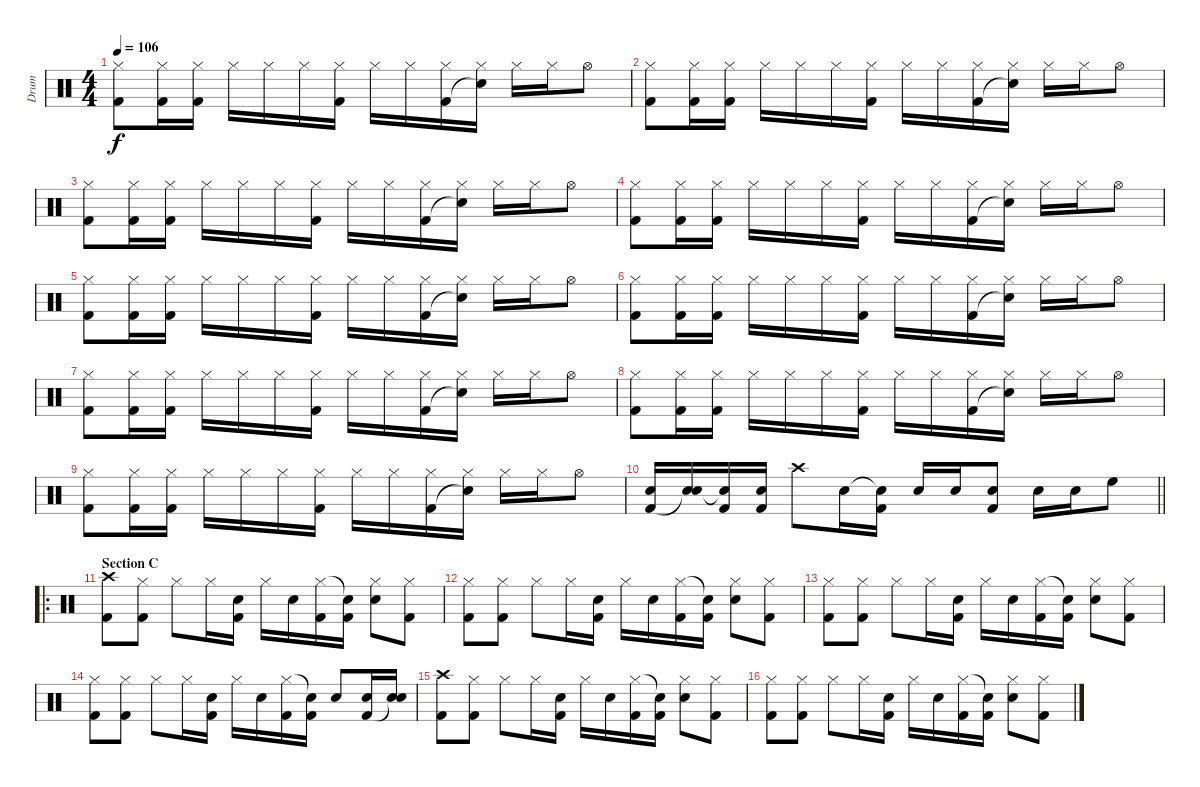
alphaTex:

\track ("Drum" "Drum") {instrument percussion}
\staff {score}
\articulation defaults
\ts (4 4)
\tempo 106
\clef neutral
\ks c
("Hi-Hat (closed)" "Kick (hit) 2").8{dy f} ("Hi-Hat (closed)" "Kick (hit) 2").16 ("Hi-Hat (closed)" "Kick (hit) 2").16 "Hi-Hat (closed)".16 "Hi-Hat (closed)".16 "Hi-Hat (closed)".16 ("Hi-Hat (closed)" "Kick (hit) 2").16 "Hi-Hat (closed)".16 "Hi-Hat (closed)".16 ("Hi-Hat (closed)" "Kick (hit) 2").16 ("Hi-Hat (closed)" "Snare (hit)"{t}).16 "Hi-Hat (closed)".16 "Hi-Hat (closed)".16 "Hi-Hat (open)".8 |
("Hi-Hat (closed)" "Kick (hit) 2").8 ("Hi-Hat (closed)" "Kick (hit) 2").16 ("Hi-Hat (closed)" "Kick (hit) 2").16 "Hi-Hat (closed)".16 "Hi-Hat (closed)".16 "Hi-Hat (closed)".16 ("Hi-Hat (closed)" "Kick (hit) 2").16 "Hi-Hat (closed)".16 "Hi-Hat (closed)".16 ("Hi-Hat (closed)" "Kick (hit) 2").16 ("Hi-Hat (closed)" "Snare (hit)"{t}).16 "Hi-Hat (closed)".16 "Hi-Hat (closed)".16 "Hi-Hat (open)".8 |
("Hi-Hat (closed)" "Kick (hit) 2").8 ("Hi-Hat (closed)" "Kick (hit) 2").16 ("Hi-Hat (closed)" "Kick (hit) 2").16 "Hi-Hat (closed)".16 "Hi-Hat (closed)".16 "Hi-Hat (closed)".16 ("Hi-Hat (closed)" "Kick (hit) 2").16 "Hi-Hat (closed)".16 "Hi-Hat (closed)".16 ("Hi-Hat (closed)" "Kick (hit) 2").16 ("Hi-Hat (closed)" "Snare (hit)"{t}).16 "Hi-Hat (closed)".16 "Hi-Hat (closed)".16 "Hi-Hat (open)".8 |
("Hi-Hat (closed)" "Kick (hit) 2").8 ("Hi-Hat (closed)" "Kick (hit) 2").16 ("Hi-Hat (closed)" "Kick (hit) 2").16 "Hi-Hat (closed)".16 "Hi-Hat (closed)".16 "Hi-Hat (closed)".16 ("Hi-Hat (closed)" "Kick (hit) 2").16 "Hi-Hat (closed)".16 "Hi-Hat (closed)".16 ("Hi-Hat (closed)" "Kick (hit) 2").16 ("Hi-Hat (closed)" "Snare (hit)"{t}).16 "Hi-Hat (closed)".16 "Hi-Hat (closed)".16 "Hi-Hat (open)".8 |
("Hi-Hat (closed)" "Kick (hit) 2").8 ("Hi-Hat (closed)" "Kick (hit) 2").16 ("Hi-Hat (closed)" "Kick (hit) 2").16 "Hi-Hat (closed)".16 "Hi-Hat (closed)".16 "Hi-Hat (closed)".16 ("Hi-Hat (closed)" "Kick (hit) 2").16 "Hi-Hat (closed)".16 "Hi-Hat (closed)".16 ("Hi-Hat (closed)" "Kick (hit) 2").16 ("Hi-Hat (closed)" "Snare (hit)"{t}).16 "Hi-Hat (closed)".16 "Hi-Hat (closed)".16 "Hi-Hat (open)".8 |
("Hi-Hat (closed)" "Kick (hit) 2").8 ("Hi-Hat (closed)" "Kick (hit) 2").16 ("Hi-Hat (closed)" "Kick (hit) 2").16 "Hi-Hat (closed)".16 "Hi-Hat (closed)".16 "Hi-Hat (closed)".16 ("Hi-Hat (closed)" "Kick (hit) 2").16 "Hi-Hat (closed)".16 "Hi-Hat (closed)".16 ("Hi-Hat (closed)" "Kick (hit) 2").16 ("Hi-Hat (closed)" "Snare (hit)"{t}).16 "Hi-Hat (closed)".16 "Hi-Hat (closed)".16 "Hi-Hat (open)".8 |
("Hi-Hat (closed)" "Kick (hit) 2").8 ("Hi-Hat (closed)" "Kick (hit) 2").16 ("Hi-Hat (closed)" "Kick (hit) 2").16 "Hi-Hat (closed)".16 "Hi-Hat (closed)".16 "Hi-Hat (closed)".16 ("Hi-Hat (closed)" "Kick (hit) 2").16 "Hi-Hat (closed)".16 "Hi-Hat (closed)".16 ("Hi-Hat (closed)" "Kick (hit) 2").16 ("Hi-Hat (closed)" "Snare (hit)"{t}).16 "Hi-Hat (closed)".16 "Hi-Hat (closed)".16 "Hi-Hat (open)".8 |
("Hi-Hat (closed)" "Kick (hit) 2").8 ("Hi-Hat (closed)" "Kick (hit) 2").16 ("Hi-Hat (closed)" "Kick (hit) 2").16 "Hi-Hat (closed)".16 "Hi-Hat (closed)".16 "Hi-Hat (closed)".16 ("Hi-Hat (closed)" "Kick (hit) 2").16 "Hi-Hat (closed)".16 "Hi-Hat (closed)".16 ("Hi-Hat (closed)" "Kick (hit) 2").16 ("Hi-Hat (closed)" "Snare (hit)"{t}).16 "Hi-Hat (closed)".16 "Hi-Hat (closed)".16 "Hi-Hat (open)".8 |
("Hi-Hat (closed)" "Kick (hit) 2").8 ("Hi-Hat (closed)" "Kick (hit) 2").16 ("Hi-Hat (closed)" "Kick (hit) 2").16 "Hi-Hat (closed)".16 "Hi-Hat (closed)".16 "Hi-Hat (closed)".16 ("Hi-Hat (closed)" "Kick (hit) 2").16 "Hi-Hat (closed)".16 "Hi-Hat (closed)".16 ("Hi-Hat (closed)" "Kick (hit) 2").16 ("Hi-Hat (closed)" "Snare (hit)"{t}).16 "Hi-Hat (closed)".16 "Hi-Hat (closed)".16 "Hi-Hat (open)".8 |
\barLineRight lightlight
("Snare (hit) 2" "Kick (hit) 2").16 ("Snare (hit) 2" "Snare (hit)"{t}).16 ("Snare (hit) 2"{t} "Kick (hit) 2").16 ("Snare (hit) 2" "Kick (hit) 2").16 "Crash high (hit)".8 "Snare (hit) 2".16 ("Snare (hit)"{t} "Kick (hit) 2").16 "Snare (hit) 2".16 "Snare (hit) 2".16 ("Snare (hit) 2" "Kick (hit) 2").8 "Snare (hit) 2".16 "Snare (hit) 2".16 "High Floor Tom (hit)".8 |
\ro
\section ("" "Section C")
("Crash high (hit)" "Kick (hit) 2").8 ("Hi-Hat (closed)" "Kick (hit) 2").8 "Hi-Hat (closed)".8 "Hi-Hat (closed)".16 ("Snare (hit) 2" "Kick (hit) 2").16 "Hi-Hat (closed)".16 "Snare (hit) 2".16 ("Hi-Hat (closed)" "Kick (hit) 2").16 ("Snare (hit)"{t} "Kick (hit) 2").16 ("Hi-Hat (closed)" "Snare (hit) 2").8 ("Hi-Hat (closed)" "Kick (hit) 2").8 |
("Hi-Hat (closed)" "Kick (hit) 2").8 ("Hi-Hat (closed)" "Kick (hit) 2").8 "Hi-Hat (closed)".8 "Hi-Hat (closed)".16 ("Snare (hit) 2" "Kick (hit) 2").16 "Hi-Hat (closed)".16 "Snare (hit) 2".16 ("Hi-Hat (closed)" "Kick (hit) 2").16 ("Snare (hit)"{t} "Kick (hit) 2").16 ("Hi-Hat (closed)" "Snare (hit) 2").8 ("Hi-Hat (closed)" "Kick (hit) 2").8 |
("Hi-Hat (closed)" "Kick (hit) 2").8 ("Hi-Hat (closed)" "Kick (hit) 2").8 "Hi-Hat (closed)".8 "Hi-Hat (closed)".16 ("Snare (hit) 2" "Kick (hit) 2").16 "Hi-Hat (closed)".16 "Snare (hit) 2".16 ("Hi-Hat (closed)" "Kick (hit) 2").16 ("Snare (hit)"{t} "Kick (hit) 2").16 ("Hi-Hat (closed)" "Snare (hit) 2").8 ("Hi-Hat (closed)" "Kick (hit) 2").8 |
("Hi-Hat (closed)" "Kick (hit) 2").8 ("Hi-Hat (closed)" "Kick (hit) 2").8 "Hi-Hat (closed)".8 "Hi-Hat (closed)".16 ("Snare (hit) 2" "Kick (hit) 2").16 "Hi-Hat (closed)".16 "Snare (hit) 2".16 ("Hi-Hat (closed)" "Kick (hit) 2").16 ("Snare (hit)"{t} "Kick (hit) 2").16 "Snare (hit) 2".8 ("Snare (hit) 2" "Kick (hit) 2").16 ("Snare (hit) 2" "Snare (hit)"{t}).16 |
("Crash high (hit)" "Kick (hit) 2").8 ("Hi-Hat (closed)" "Kick (hit) 2").8 "Hi-Hat (closed)".8 "Hi-Hat (closed)".16 ("Snare (hit) 2" "Kick (hit) 2").16 "Hi-Hat (closed)".16 "Snare (hit) 2".16 ("Hi-Hat (closed)" "Kick (hit) 2").16 ("Snare (hit)"{t} "Kick (hit) 2").16 ("Hi-Hat (closed)" "Snare (hit) 2").8 ("Hi-Hat (closed)" "Kick (hit) 2").8 |
("Hi-Hat (closed)" "Kick (hit) 2").8 ("Hi-Hat (closed)" "Kick (hit) 2").8 "Hi-Hat (closed)".8 "Hi-Hat (closed)".16 ("Snare (hit) 2" "Kick (hit) 2").16 "Hi-Hat (closed)".16 "Snare (hit) 2".16 ("Hi-Hat (closed)" "Kick (hit) 2").16 ("Snare (hit)"{t} "Kick (hit) 2").16 ("Hi-Hat (closed)" "Snare (hit) 2").8 ("Hi-Hat (closed)" "Kick (hit) 2").8
